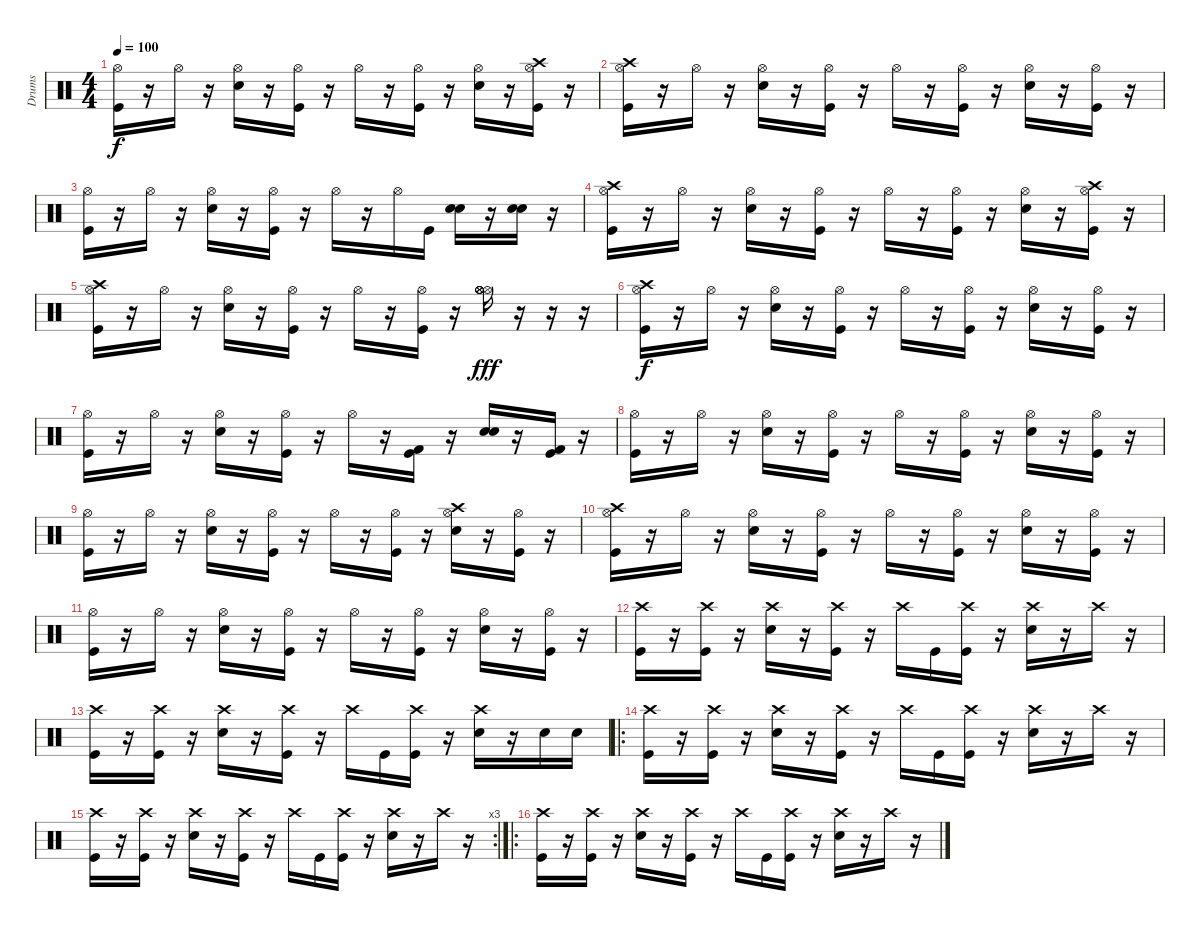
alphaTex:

\track ("Drums" "Drums") {instrument percussion}
\staff {score}
\articulation defaults
\ts (4 4)
\tempo 100
\clef neutral
\ks c
("Kick (hit)" "Hi-Hat (open)").16{dy f} r.16 "Hi-Hat (open)".16 r.16 ("Electric Snare (hit)" "Hi-Hat (open)").16 r.16 ("Kick (hit)" "Hi-Hat (open)").16 r.16 "Hi-Hat (open)".16 r.16 ("Kick (hit)" "Hi-Hat (open)").16 r.16 ("Electric Snare (hit)" "Hi-Hat (open)").16 r.16 ("Crash high (hit)" "Kick (hit)" "Hi-Hat (open)").16 r.16 |
("Crash high (hit)" "Kick (hit)" "Hi-Hat (open)").16 r.16 "Hi-Hat (open)".16 r.16 ("Electric Snare (hit)" "Hi-Hat (open)").16 r.16 ("Kick (hit)" "Hi-Hat (open)").16 r.16 "Hi-Hat (open)".16 r.16 ("Kick (hit)" "Hi-Hat (open)").16 r.16 ("Electric Snare (hit)" "Hi-Hat (open)").16 r.16 ("Kick (hit)" "Hi-Hat (open)").16 r.16 |
("Kick (hit)" "Hi-Hat (open)").16 r.16 "Hi-Hat (open)".16 r.16 ("Electric Snare (hit)" "Hi-Hat (open)").16 r.16 ("Kick (hit)" "Hi-Hat (open)").16 r.16 "Hi-Hat (open)".16 r.16 "Hi-Hat (open)".16 "Kick (hit)".16 ("Electric Snare (hit)" "Snare (hit) 2").16 r.16 ("Electric Snare (hit)" "Snare (hit) 2").16 r.16 |
("Crash high (hit)" "Kick (hit)" "Hi-Hat (open)").16{volume 13} r.16 "Hi-Hat (open)".16 r.16 ("Electric Snare (hit)" "Hi-Hat (open)").16 r.16 ("Kick (hit)" "Hi-Hat (open)").16 r.16 "Hi-Hat (open)".16 r.16 ("Kick (hit)" "Hi-Hat (open)").16 r.16 ("Electric Snare (hit)" "Hi-Hat (open)").16 r.16 ("Crash high (hit)" "Kick (hit)" "Hi-Hat (open)").16 r.16 |
("Crash high (hit)" "Kick (hit)" "Hi-Hat (open)").16 r.16 "Hi-Hat (open)".16 r.16 ("Electric Snare (hit)" "Hi-Hat (open)").16 r.16 ("Kick (hit)" "Hi-Hat (open)").16 r.16 "Hi-Hat (open)".16 r.16 ("Kick (hit)" "Hi-Hat (open)").16 r.16 ("Hi-Hat (open)" "Hi-Hat (open)" "Hi-Hat (open)" "Hi-Hat (open)").16{dy fff} r.16 r.16 r.16 |
("Crash high (hit)" "Kick (hit)" "Hi-Hat (open)").16{dy f} r.16 "Hi-Hat (open)".16 r.16 ("Electric Snare (hit)" "Hi-Hat (open)").16 r.16 ("Kick (hit)" "Hi-Hat (open)").16 r.16 "Hi-Hat (open)".16 r.16 ("Kick (hit)" "Hi-Hat (open)").16 r.16 ("Electric Snare (hit)" "Hi-Hat (open)").16 r.16 ("Kick (hit)" "Hi-Hat (open)").16 r.16 |
("Kick (hit)" "Hi-Hat (open)").16 r.16 "Hi-Hat (open)".16 r.16 ("Electric Snare (hit)" "Hi-Hat (open)").16 r.16 ("Kick (hit)" "Hi-Hat (open)").16 r.16 "Hi-Hat (open)".16 r.16 ("Kick (hit)" "Kick (hit) 2").16 r.16 ("Electric Snare (hit)" "Snare (hit) 2").16 r.16 ("Kick (hit)" "Kick (hit) 2").16 r.16 |
("Kick (hit)" "Hi-Hat (open)").16 r.16 "Hi-Hat (open)".16 r.16 ("Electric Snare (hit)" "Hi-Hat (open)").16 r.16 ("Kick (hit)" "Hi-Hat (open)").16 r.16 "Hi-Hat (open)".16 r.16 ("Kick (hit)" "Hi-Hat (open)").16 r.16 ("Electric Snare (hit)" "Hi-Hat (open)").16 r.16 ("Kick (hit)" "Hi-Hat (open)").16 r.16 |
("Kick (hit)" "Hi-Hat (open)").16 r.16 "Hi-Hat (open)".16 r.16 ("Electric Snare (hit)" "Hi-Hat (open)").16 r.16 ("Kick (hit)" "Hi-Hat (open)").16 r.16 "Hi-Hat (open)".16 r.16 ("Kick (hit)" "Hi-Hat (open)").16 r.16 ("Crash high (hit)" "Electric Snare (hit)" "Hi-Hat (open)").16 r.16 ("Kick (hit)" "Hi-Hat (open)").16 r.16 |
("Crash high (hit)" "Kick (hit)" "Hi-Hat (open)").16 r.16 "Hi-Hat (open)".16 r.16 ("Electric Snare (hit)" "Hi-Hat (open)").16 r.16 ("Kick (hit)" "Hi-Hat (open)").16 r.16 "Hi-Hat (open)".16 r.16 ("Kick (hit)" "Hi-Hat (open)").16 r.16 ("Electric Snare (hit)" "Hi-Hat (open)").16 r.16 ("Kick (hit)" "Hi-Hat (open)").16 r.16 |
("Kick (hit)" "Hi-Hat (open)").16 r.16 "Hi-Hat (open)".16 r.16 ("Electric Snare (hit)" "Hi-Hat (open)").16 r.16 ("Kick (hit)" "Hi-Hat (open)").16 r.16 "Hi-Hat (open)".16 r.16 ("Kick (hit)" "Hi-Hat (open)").16 r.16 ("Electric Snare (hit)" "Hi-Hat (open)").16 r.16 ("Kick (hit)" "Hi-Hat (open)").16 r.16 |
("Crash high (hit)" "Kick (hit)").16{volume 13} r.16 ("Crash high (hit)" "Kick (hit)").16 r.16 ("Crash high (hit)" "Electric Snare (hit)").16 r.16 ("Crash high (hit)" "Kick (hit)").16 r.16 "Crash high (hit)".16 "Kick (hit)".16 ("Crash high (hit)" "Kick (hit)").16 r.16 ("Crash high (hit)" "Electric Snare (hit)").16 r.16 "Crash high (hit)".16 r.16 |
("Crash high (hit)" "Kick (hit)").16{volume 13} r.16 ("Crash high (hit)" "Kick (hit)").16 r.16 ("Crash high (hit)" "Electric Snare (hit)").16 r.16 ("Crash high (hit)" "Kick (hit)").16 r.16 "Crash high (hit)".16 "Kick (hit)".16 ("Crash high (hit)" "Kick (hit)").16 r.16 ("Crash high (hit)" "Electric Snare (hit)").16 r.16 "Electric Snare (hit)".16 "Electric Snare (hit)".16 |
\ro
("Crash high (hit)" "Kick (hit)").16{volume 13} r.16 ("Crash high (hit)" "Kick (hit)").16 r.16 ("Crash high (hit)" "Electric Snare (hit)").16 r.16 ("Crash high (hit)" "Kick (hit)").16 r.16 "Crash high (hit)".16 "Kick (hit)".16 ("Crash high (hit)" "Kick (hit)").16 r.16 ("Crash high (hit)" "Electric Snare (hit)").16 r.16 "Crash high (hit)".16 r.16 |
\rc 3
("Crash high (hit)" "Kick (hit)").16{volume 13} r.16 ("Crash high (hit)" "Kick (hit)").16 r.16 ("Crash high (hit)" "Electric Snare (hit)").16 r.16 ("Crash high (hit)" "Kick (hit)").16 r.16 "Crash high (hit)".16 "Kick (hit)".16 ("Crash high (hit)" "Kick (hit)").16 r.16 ("Crash high (hit)" "Electric Snare (hit)").16 r.16 "Crash high (hit)".16 r.16 |
\ro
("Crash high (hit)" "Kick (hit)").16{volume 13} r.16 ("Crash high (hit)" "Kick (hit)").16 r.16 ("Crash high (hit)" "Electric Snare (hit)").16 r.16 ("Crash high (hit)" "Kick (hit)").16 r.16 "Crash high (hit)".16 "Kick (hit)".16 ("Crash high (hit)" "Kick (hit)").16 r.16 ("Crash high (hit)" "Electric Snare (hit)").16 r.16 "Crash high (hit)".16 r.16
